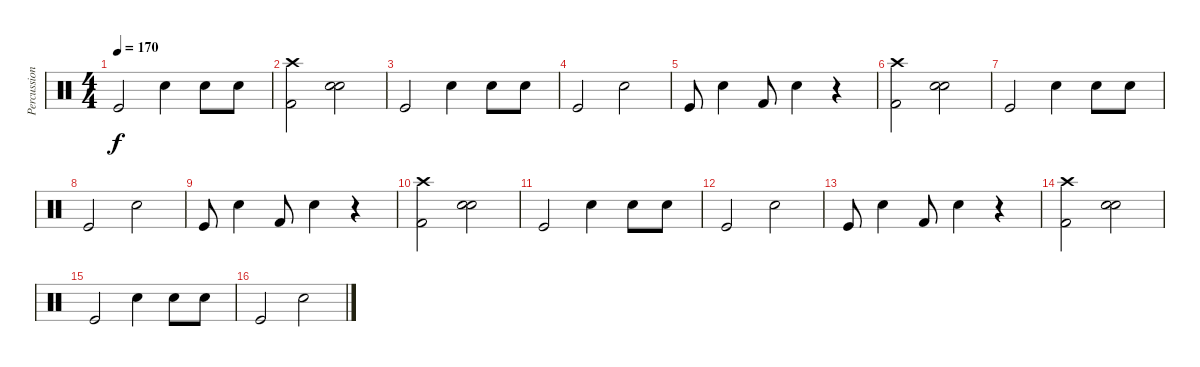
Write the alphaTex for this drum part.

\track ("Percussion" "Percussion") {instrument percussion}
\staff {score}
\articulation defaults
\ts (4 4)
\tempo 170
\clef neutral
\ks c "Kick (hit)".2{dy f} "Snare (hit) 2".4 "Snare (hit) 2".8 "Snare (hit) 2".8
|
("Crash high (hit)" "Kick (hit) 2").2 ("Snare (hit) 2" "Snare (hit) 2").2 |
"Kick (hit)".2 "Snare (hit) 2".4 "Snare (hit) 2".8 "Snare (hit) 2".8 |
"Kick (hit)".2 "Snare (hit) 2".2 |
"Kick (hit)".8 "Snare (hit) 2".4 "Kick (hit) 2".8 "Snare (hit) 2".4 r.4 |
("Crash high (hit)" "Kick (hit) 2").2 ("Snare (hit) 2" "Snare (hit) 2").2 |
"Kick (hit)".2 "Snare (hit) 2".4 "Snare (hit) 2".8 "Snare (hit) 2".8 |
"Kick (hit)".2 "Snare (hit) 2".2 |
"Kick (hit)".8 "Snare (hit) 2".4 "Kick (hit) 2".8 "Snare (hit) 2".4 r.4 |
("Crash high (hit)" "Kick (hit) 2").2 ("Snare (hit) 2" "Snare (hit) 2").2 |
"Kick (hit)".2 "Snare (hit) 2".4 "Snare (hit) 2".8 "Snare (hit) 2".8 |
"Kick (hit)".2 "Snare (hit) 2".2 |
"Kick (hit)".8 "Snare (hit) 2".4 "Kick (hit) 2".8 "Snare (hit) 2".4 r.4 |
("Crash high (hit)" "Kick (hit) 2").2 ("Snare (hit) 2" "Snare (hit) 2").2 |
"Kick (hit)".2 "Snare (hit) 2".4 "Snare (hit) 2".8 "Snare (hit) 2".8 |
"Kick (hit)".2 "Snare (hit) 2".2
